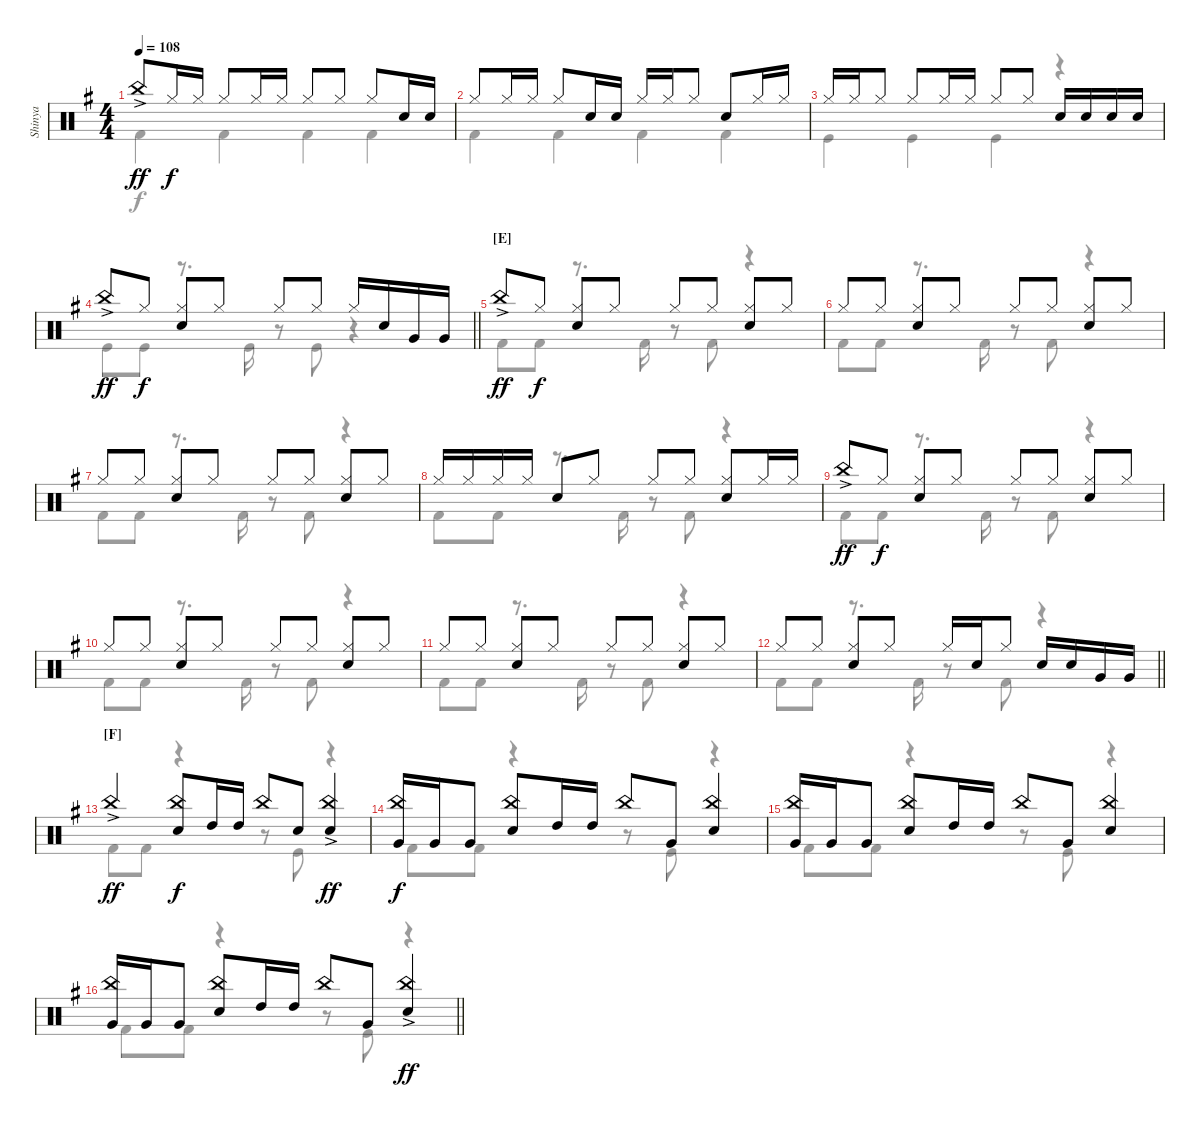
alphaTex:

\track ("Shinya" "Shinya") {instrument percussion}
\staff {score}
\articulation defaults
\voice
\ts (4 4)
\tempo 108
\clef neutral
\ks g "China (hit)"{ac}.8{dy ff} "Hi-Hat (closed)".16{dy f} "Hi-Hat (closed)".16 "Hi-Hat (closed)".8 "Hi-Hat (closed)".16 "Hi-Hat (closed)".16 "Hi-Hat (closed)".8 "Hi-Hat (closed)".8 "Hi-Hat (closed)".8 "Snare (hit) 2".16 "Snare (hit) 2".16
|
"Hi-Hat (closed)".8 "Hi-Hat (closed)".16 "Hi-Hat (closed)".16 "Hi-Hat (closed)".8 "Snare (hit) 2".16 "Snare (hit) 2".16 "Hi-Hat (closed)".16 "Hi-Hat (closed)".16 "Hi-Hat (closed)".8 "Snare (hit) 2".8 "Hi-Hat (closed)".16 "Hi-Hat (closed)".16 |
"Hi-Hat (closed)".16 "Hi-Hat (closed)".16 "Hi-Hat (closed)".8 "Hi-Hat (closed)".8 "Hi-Hat (closed)".16 "Hi-Hat (closed)".16 "Hi-Hat (closed)".8 "Hi-Hat (closed)".8 "Snare (hit) 2".16 "Snare (hit) 2".16 "Snare (hit) 2".16 "Snare (hit) 2".16 |
\barLineRight lightlight "China (hit)"{ac}.8{dy ff} "Hi-Hat (closed)".8{dy f}
("Hi-Hat (closed)" "Snare (hit) 2").8 "Hi-Hat (closed)".8 "Hi-Hat (closed)".8 "Hi-Hat (closed)".8 "Hi-Hat (closed)".16 "Snare (hit) 2".16 "Very Low Tom (hit)".16 "Very Low Tom (hit)".16 |
\section ("" "[E]")
"China (hit)"{ac}.8{dy ff} "Hi-Hat (closed)".8{dy f} ("Hi-Hat (closed)" "Snare (hit) 2").8 "Hi-Hat (closed)".8 "Hi-Hat (closed)".8 "Hi-Hat (closed)".8 ("Hi-Hat (closed)" "Snare (hit) 2").8 "Hi-Hat (closed)".8 |
"Hi-Hat (closed)".8 "Hi-Hat (closed)".8 ("Hi-Hat (closed)" "Snare (hit) 2").8 "Hi-Hat (closed)".8 "Hi-Hat (closed)".8 "Hi-Hat (closed)".8 ("Hi-Hat (closed)" "Snare (hit) 2").8 "Hi-Hat (closed)".8 |
"Hi-Hat (closed)".8 "Hi-Hat (closed)".8 ("Hi-Hat (closed)" "Snare (hit) 2").8 "Hi-Hat (closed)".8 "Hi-Hat (closed)".8 "Hi-Hat (closed)".8 ("Hi-Hat (closed)" "Snare (hit) 2").8 "Hi-Hat (closed)".8 |
"Hi-Hat (closed)".16 "Hi-Hat (closed)".16 "Hi-Hat (closed)".16 "Hi-Hat (closed)".16 "Snare (hit) 2".8 "Hi-Hat (closed)".8 "Hi-Hat (closed)".8 "Hi-Hat (closed)".8 ("Hi-Hat (closed)" "Snare (hit) 2").8 "Hi-Hat (closed)".16 "Hi-Hat (closed)".16 |
"China (hit)"{ac}.8{dy ff} "Hi-Hat (closed)".8{dy f} ("Hi-Hat (closed)" "Snare (hit) 2").8 "Hi-Hat (closed)".8 "Hi-Hat (closed)".8 "Hi-Hat (closed)".8 ("Hi-Hat (closed)" "Snare (hit) 2").8 "Hi-Hat (closed)".8 |
"Hi-Hat (closed)".8 "Hi-Hat (closed)".8 ("Hi-Hat (closed)" "Snare (hit) 2").8 "Hi-Hat (closed)".8 "Hi-Hat (closed)".8 "Hi-Hat (closed)".8 ("Hi-Hat (closed)" "Snare (hit) 2").8 "Hi-Hat (closed)".8 |
"Hi-Hat (closed)".8 "Hi-Hat (closed)".8 ("Hi-Hat (closed)" "Snare (hit) 2").8 "Hi-Hat (closed)".8 "Hi-Hat (closed)".8 "Hi-Hat (closed)".8 ("Hi-Hat (closed)" "Snare (hit) 2").8 "Hi-Hat (closed)".8 |
\barLineRight lightlight "Hi-Hat (closed)".8 "Hi-Hat (closed)".8
("Hi-Hat (closed)" "Snare (hit) 2").8 "Hi-Hat (closed)".8 "Hi-Hat (closed)".16 "Snare (hit) 2".16 "Hi-Hat (closed)".8 "Snare (hit) 2".16 "Snare (hit) 2".16 "Very Low Tom (hit)".16 "Very Low Tom (hit)".16 |
\section ("" "[F]")
"China (hit)"{ac}.4{dy ff} ("China (hit)" "Snare (hit) 2").8{dy f} "High Tom (hit)".16 "High Tom (hit)".16 "China (hit)".8 "Snare (hit) 2".8 ("China (hit)"{ac} "Snare (hit) 2").4{dy ff} |
("China (hit)" "Very Low Tom (hit)").16{dy f} "Very Low Tom (hit)".16 "Very Low Tom (hit)".8 ("China (hit)" "Snare (hit) 2").8 "High Tom (hit)".16 "High Tom (hit)".16 "China (hit)".8 "Very Low Tom (hit)".8 ("China (hit)" "Snare (hit) 2").4 |
("China (hit)" "Very Low Tom (hit)").16 "Very Low Tom (hit)".16 "Very Low Tom (hit)".8 ("China (hit)" "Snare (hit) 2").8 "High Tom (hit)".16 "High Tom (hit)".16 "China (hit)".8 "Very Low Tom (hit)".8 ("China (hit)" "Snare (hit) 2").4 |
\barLineRight lightlight
("China (hit)" "Very Low Tom (hit)").16 "Very Low Tom (hit)".16 "Very Low Tom (hit)".8 ("China (hit)" "Snare (hit) 2").8 "High Tom (hit)".16 "High Tom (hit)".16 "China (hit)".8 "Very Low Tom (hit)".8 ("China (hit)"{ac} "Snare (hit) 2").4{dy ff}
\voice
\clef neutral
\ottava regular
\simile none
\ks g "Kick (hit) 2".4{dy f} "Kick (hit) 2".4 "Kick (hit) 2".4 "Kick (hit) 2".4
|
"Kick (hit) 2".4 "Kick (hit) 2".4 "Kick (hit) 2".4 "Kick (hit) 2".4 |
"Kick (hit)".4 "Kick (hit)".4 "Kick (hit)".4 r.4 |
\barLineRight lightlight "Kick (hit)".8 "Kick (hit)".8
r.8{d} "Kick (hit)".16 r.8 "Kick (hit)".8 r.4 |
"Kick (hit) 2".8 "Kick (hit) 2".8 r.8{d} "Kick (hit) 2".16 r.8 "Kick (hit) 2".8 r.4 |
"Kick (hit) 2".8 "Kick (hit) 2".8 r.8{d} "Kick (hit) 2".16 r.8 "Kick (hit) 2".8 r.4 |
"Kick (hit) 2".8 "Kick (hit) 2".8 r.8{d} "Kick (hit) 2".16 r.8 "Kick (hit) 2".8 r.4 |
"Kick (hit) 2".8 "Kick (hit) 2".8 r.8{d} "Kick (hit) 2".16 r.8 "Kick (hit) 2".8 r.4 |
"Kick (hit) 2".8 "Kick (hit) 2".8 r.8{d} "Kick (hit) 2".16 r.8 "Kick (hit) 2".8 r.4 |
"Kick (hit) 2".8 "Kick (hit) 2".8 r.8{d} "Kick (hit) 2".16 r.8 "Kick (hit) 2".8 r.4 |
"Kick (hit) 2".8 "Kick (hit) 2".8 r.8{d} "Kick (hit) 2".16 r.8 "Kick (hit) 2".8 r.4 |
\barLineRight lightlight "Kick (hit) 2".8 "Kick (hit) 2".8
r.8{d} "Kick (hit) 2".16 r.8 "Kick (hit) 2".8 r.4 |
"Kick (hit) 2".8 "Kick (hit) 2".8 r.4 r.8 "Kick (hit)".8 r.4 |
"Kick (hit) 2".8 "Kick (hit) 2".8 r.4 r.8 "Kick (hit)".8 r.4 |
"Kick (hit) 2".8 "Kick (hit) 2".8 r.4 r.8 "Kick (hit)".8 r.4 |
\barLineRight lightlight "Kick (hit) 2".8 "Kick (hit) 2".8
r.4 r.8 "Kick (hit)".8 r.4
